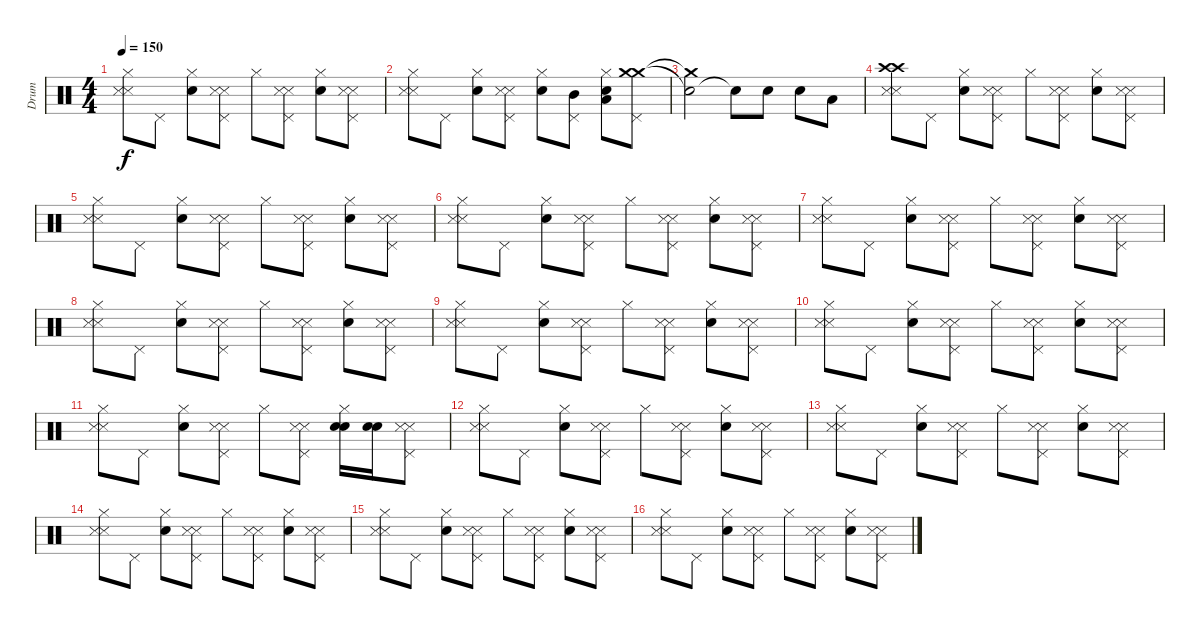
\track ("Drum" "Drum") {instrument percussion}
\staff {score}
\articulation defaults
\ts (4 4)
\tempo 150
\clef neutral
\ks c
("Metronome (hit)" "Metronome (hit)" "Hi-Hat (closed)").8{dy f} "Pedal Hi-Hat (hit)".8 ("Electric Snare (hit)" "Hi-Hat (closed)").8 ("Metronome (hit)" "Metronome (hit)" "Pedal Hi-Hat (hit)").8 "Hi-Hat (closed)".8 ("Metronome (hit)" "Metronome (hit)" "Pedal Hi-Hat (hit)").8 ("Electric Snare (hit)" "Hi-Hat (closed)").8 ("Metronome (hit)" "Metronome (hit)" "Pedal Hi-Hat (hit)").8 |
("Metronome (hit)" "Metronome (hit)" "Hi-Hat (closed)").8 "Pedal Hi-Hat (hit)".8 ("Electric Snare (hit)" "Hi-Hat (closed)").8 ("Metronome (hit)" "Metronome (hit)" "Pedal Hi-Hat (hit)").8 ("Electric Snare (hit)" "Hi-Hat (closed)").8 ("Mid Tom (hit)" "Pedal Hi-Hat (hit)").8 ("Electric Snare (hit)" "Low Tom (hit)" "Hi-Hat (closed)").8 ("Crash medium (hit)" "Crash medium (hit)" "Pedal Hi-Hat (hit)").8 |
("Electric Snare (hit)"{t} "Crash medium (hit)"{t}).2 "Snare (hit)"{t}.8 "Electric Snare (hit)".8 "Electric Snare (hit)".8 "Low Tom (hit)".8 |
("Metronome (hit)" "Metronome (hit)" "Crash high (hit)" "Crash high (hit)").8 "Pedal Hi-Hat (hit)".8 ("Electric Snare (hit)" "Hi-Hat (closed)").8 ("Metronome (hit)" "Metronome (hit)" "Pedal Hi-Hat (hit)").8 "Hi-Hat (closed)".8 ("Metronome (hit)" "Metronome (hit)" "Pedal Hi-Hat (hit)").8 ("Electric Snare (hit)" "Hi-Hat (closed)").8 ("Metronome (hit)" "Metronome (hit)" "Pedal Hi-Hat (hit)").8 |
("Metronome (hit)" "Metronome (hit)" "Hi-Hat (closed)").8 "Pedal Hi-Hat (hit)".8 ("Electric Snare (hit)" "Hi-Hat (closed)").8 ("Metronome (hit)" "Metronome (hit)" "Pedal Hi-Hat (hit)").8 "Hi-Hat (closed)".8 ("Metronome (hit)" "Metronome (hit)" "Pedal Hi-Hat (hit)").8 ("Electric Snare (hit)" "Hi-Hat (closed)").8 ("Metronome (hit)" "Metronome (hit)" "Pedal Hi-Hat (hit)").8 |
("Metronome (hit)" "Metronome (hit)" "Hi-Hat (closed)").8 "Pedal Hi-Hat (hit)".8 ("Electric Snare (hit)" "Hi-Hat (closed)").8 ("Metronome (hit)" "Metronome (hit)" "Pedal Hi-Hat (hit)").8 "Hi-Hat (closed)".8 ("Metronome (hit)" "Metronome (hit)" "Pedal Hi-Hat (hit)").8 ("Electric Snare (hit)" "Hi-Hat (closed)").8 ("Metronome (hit)" "Metronome (hit)" "Pedal Hi-Hat (hit)").8 |
("Metronome (hit)" "Metronome (hit)" "Hi-Hat (closed)").8 "Pedal Hi-Hat (hit)".8 ("Electric Snare (hit)" "Hi-Hat (closed)").8 ("Metronome (hit)" "Metronome (hit)" "Pedal Hi-Hat (hit)").8 "Hi-Hat (closed)".8 ("Metronome (hit)" "Metronome (hit)" "Pedal Hi-Hat (hit)").8 ("Electric Snare (hit)" "Hi-Hat (closed)").8 ("Metronome (hit)" "Metronome (hit)" "Pedal Hi-Hat (hit)").8 |
("Metronome (hit)" "Metronome (hit)" "Hi-Hat (closed)").8 "Pedal Hi-Hat (hit)".8 ("Electric Snare (hit)" "Hi-Hat (closed)").8 ("Metronome (hit)" "Metronome (hit)" "Pedal Hi-Hat (hit)").8 "Hi-Hat (closed)".8 ("Metronome (hit)" "Metronome (hit)" "Pedal Hi-Hat (hit)").8 ("Electric Snare (hit)" "Hi-Hat (closed)").8 ("Metronome (hit)" "Metronome (hit)" "Pedal Hi-Hat (hit)").8 |
("Metronome (hit)" "Metronome (hit)" "Hi-Hat (closed)").8 "Pedal Hi-Hat (hit)".8 ("Electric Snare (hit)" "Hi-Hat (closed)").8 ("Metronome (hit)" "Metronome (hit)" "Pedal Hi-Hat (hit)").8 "Hi-Hat (closed)".8 ("Metronome (hit)" "Metronome (hit)" "Pedal Hi-Hat (hit)").8 ("Electric Snare (hit)" "Hi-Hat (closed)").8 ("Metronome (hit)" "Metronome (hit)" "Pedal Hi-Hat (hit)").8 |
("Metronome (hit)" "Metronome (hit)" "Hi-Hat (closed)").8 "Pedal Hi-Hat (hit)".8 ("Electric Snare (hit)" "Hi-Hat (closed)").8 ("Metronome (hit)" "Metronome (hit)" "Pedal Hi-Hat (hit)").8 "Hi-Hat (closed)".8 ("Metronome (hit)" "Metronome (hit)" "Pedal Hi-Hat (hit)").8 ("Electric Snare (hit)" "Hi-Hat (closed)").8 ("Metronome (hit)" "Metronome (hit)" "Pedal Hi-Hat (hit)").8 |
("Metronome (hit)" "Metronome (hit)" "Hi-Hat (closed)").8 "Pedal Hi-Hat (hit)".8 ("Electric Snare (hit)" "Hi-Hat (closed)").8 ("Metronome (hit)" "Metronome (hit)" "Pedal Hi-Hat (hit)").8 "Hi-Hat (closed)".8 ("Metronome (hit)" "Metronome (hit)" "Pedal Hi-Hat (hit)").8 ("Electric Snare (hit)" "Electric Snare (hit)" "Hi-Hat (closed)").16 ("Electric Snare (hit)" "Electric Snare (hit)").16 ("Metronome (hit)" "Metronome (hit)" "Pedal Hi-Hat (hit)").8 |
("Metronome (hit)" "Metronome (hit)" "Hi-Hat (closed)").8 "Pedal Hi-Hat (hit)".8 ("Electric Snare (hit)" "Hi-Hat (closed)").8 ("Metronome (hit)" "Metronome (hit)" "Pedal Hi-Hat (hit)").8 "Hi-Hat (closed)".8 ("Metronome (hit)" "Metronome (hit)" "Pedal Hi-Hat (hit)").8 ("Electric Snare (hit)" "Hi-Hat (closed)").8 ("Metronome (hit)" "Metronome (hit)" "Pedal Hi-Hat (hit)").8 |
("Metronome (hit)" "Metronome (hit)" "Hi-Hat (closed)").8 "Pedal Hi-Hat (hit)".8 ("Electric Snare (hit)" "Hi-Hat (closed)").8 ("Metronome (hit)" "Metronome (hit)" "Pedal Hi-Hat (hit)").8 "Hi-Hat (closed)".8 ("Metronome (hit)" "Metronome (hit)" "Pedal Hi-Hat (hit)").8 ("Electric Snare (hit)" "Hi-Hat (closed)").8 ("Metronome (hit)" "Metronome (hit)" "Pedal Hi-Hat (hit)").8 |
("Metronome (hit)" "Metronome (hit)" "Hi-Hat (closed)").8 "Pedal Hi-Hat (hit)".8 ("Electric Snare (hit)" "Hi-Hat (closed)").8 ("Metronome (hit)" "Metronome (hit)" "Pedal Hi-Hat (hit)").8 "Hi-Hat (closed)".8 ("Metronome (hit)" "Metronome (hit)" "Pedal Hi-Hat (hit)").8 ("Electric Snare (hit)" "Hi-Hat (closed)").8 ("Metronome (hit)" "Metronome (hit)" "Pedal Hi-Hat (hit)").8 |
("Metronome (hit)" "Metronome (hit)" "Hi-Hat (closed)").8 "Pedal Hi-Hat (hit)".8 ("Electric Snare (hit)" "Hi-Hat (closed)").8 ("Metronome (hit)" "Metronome (hit)" "Pedal Hi-Hat (hit)").8 "Hi-Hat (closed)".8 ("Metronome (hit)" "Metronome (hit)" "Pedal Hi-Hat (hit)").8 ("Electric Snare (hit)" "Hi-Hat (closed)").8 ("Metronome (hit)" "Metronome (hit)" "Pedal Hi-Hat (hit)").8 |
("Metronome (hit)" "Metronome (hit)" "Hi-Hat (closed)").8 "Pedal Hi-Hat (hit)".8 ("Electric Snare (hit)" "Hi-Hat (closed)").8 ("Metronome (hit)" "Metronome (hit)" "Pedal Hi-Hat (hit)").8 "Hi-Hat (closed)".8 ("Metronome (hit)" "Metronome (hit)" "Pedal Hi-Hat (hit)").8 ("Electric Snare (hit)" "Hi-Hat (closed)").8 ("Metronome (hit)" "Metronome (hit)" "Pedal Hi-Hat (hit)").8
